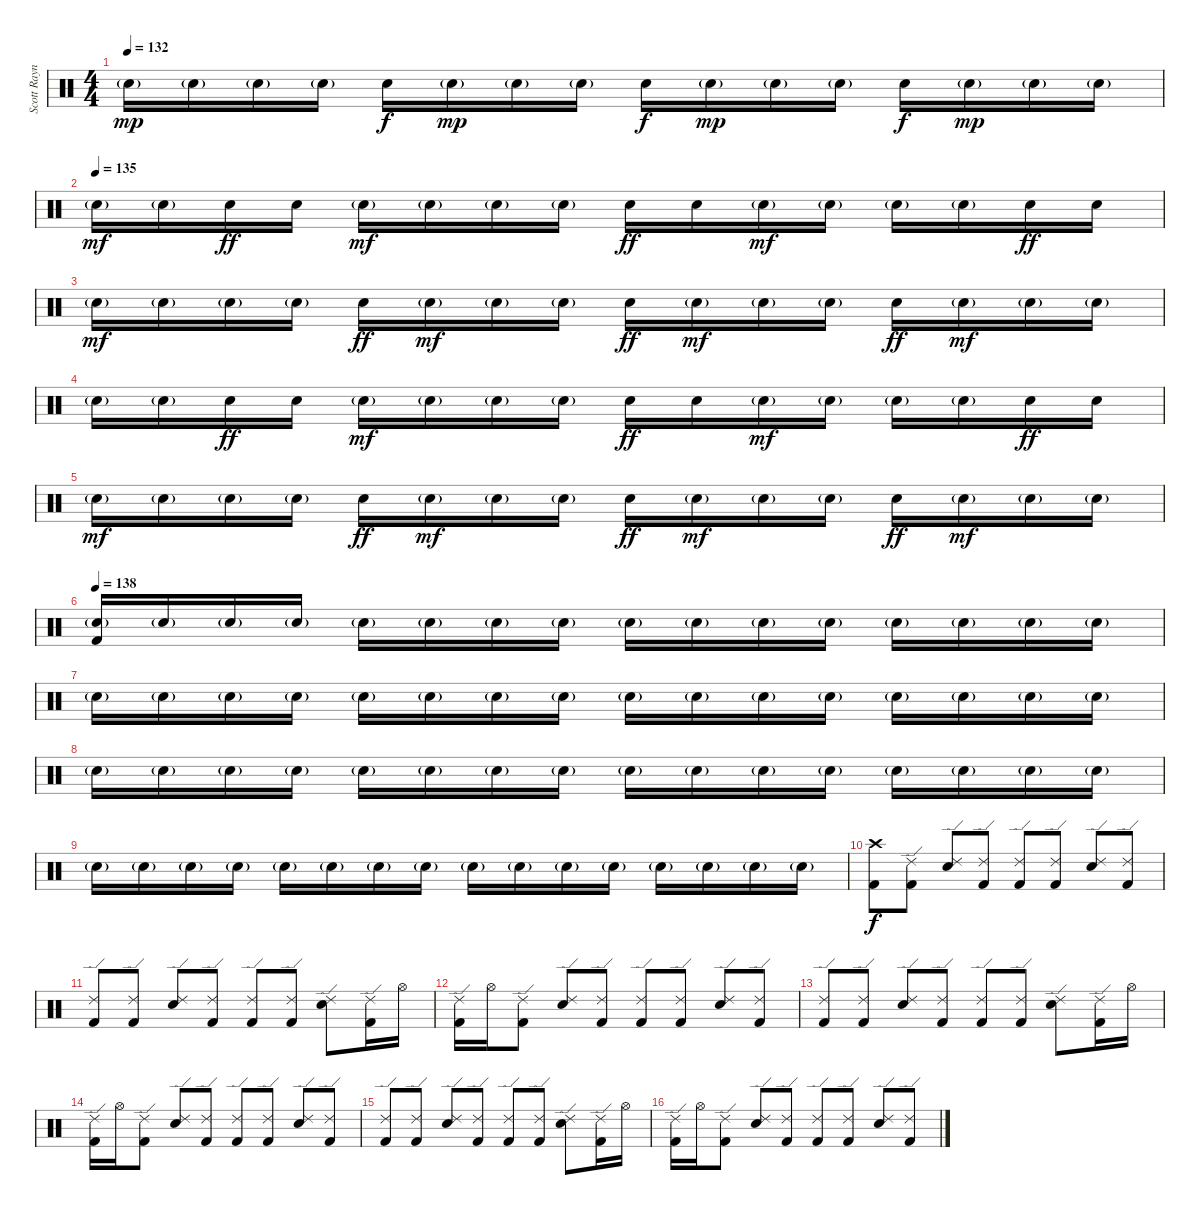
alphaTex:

\track ("Scott Raynor" "Scott Rayn") {instrument percussion}
\staff {score}
\articulation defaults
\ts (4 4)
\tempo 132
\clef neutral
\ks c "Snare (hit) 2"{g}.16{dy mp} "Snare (hit) 2"{g}.16 "Snare (hit) 2"{g}.16 "Snare (hit) 2"{g}.16 "Snare (hit) 2".16{dy f} "Snare (hit) 2"{g}.16{dy mp} "Snare (hit) 2"{g}.16 "Snare (hit) 2"{g}.16 "Snare (hit) 2".16{dy f} "Snare (hit) 2"{g}.16{dy mp} "Snare (hit) 2"{g}.16 "Snare (hit) 2"{g}.16 "Snare (hit) 2".16{dy f} "Snare (hit) 2"{g}.16{dy mp} "Snare (hit) 2"{g}.16 "Snare (hit) 2"{g}.16
|
\tempo (135)
"Snare (hit) 2"{g}.16{dy mf} "Snare (hit) 2"{g}.16 "Snare (hit) 2".16{dy ff} "Snare (hit) 2".16 "Snare (hit) 2"{g}.16{dy mf} "Snare (hit) 2"{g}.16 "Snare (hit) 2"{g}.16 "Snare (hit) 2"{g}.16 "Snare (hit) 2".16{dy ff} "Snare (hit) 2".16 "Snare (hit) 2"{g}.16{dy mf} "Snare (hit) 2"{g}.16 "Snare (hit) 2"{g}.16 "Snare (hit) 2"{g}.16 "Snare (hit) 2".16{dy ff} "Snare (hit) 2".16 |
"Snare (hit) 2"{g}.16{dy mf} "Snare (hit) 2"{g}.16 "Snare (hit) 2"{g}.16 "Snare (hit) 2"{g}.16 "Snare (hit) 2".16{dy ff} "Snare (hit) 2"{g}.16{dy mf} "Snare (hit) 2"{g}.16 "Snare (hit) 2"{g}.16 "Snare (hit) 2".16{dy ff} "Snare (hit) 2"{g}.16{dy mf} "Snare (hit) 2"{g}.16 "Snare (hit) 2"{g}.16 "Snare (hit) 2".16{dy ff} "Snare (hit) 2"{g}.16{dy mf} "Snare (hit) 2"{g}.16 "Snare (hit) 2"{g}.16 |
"Snare (hit) 2"{g}.16 "Snare (hit) 2"{g}.16 "Snare (hit) 2".16{dy ff} "Snare (hit) 2".16 "Snare (hit) 2"{g}.16{dy mf} "Snare (hit) 2"{g}.16 "Snare (hit) 2"{g}.16 "Snare (hit) 2"{g}.16 "Snare (hit) 2".16{dy ff} "Snare (hit) 2".16 "Snare (hit) 2"{g}.16{dy mf} "Snare (hit) 2"{g}.16 "Snare (hit) 2"{g}.16 "Snare (hit) 2"{g}.16 "Snare (hit) 2".16{dy ff} "Snare (hit) 2".16 |
"Snare (hit) 2"{g}.16{dy mf} "Snare (hit) 2"{g}.16 "Snare (hit) 2"{g}.16 "Snare (hit) 2"{g}.16 "Snare (hit) 2".16{dy ff} "Snare (hit) 2"{g}.16{dy mf} "Snare (hit) 2"{g}.16 "Snare (hit) 2"{g}.16 "Snare (hit) 2".16{dy ff} "Snare (hit) 2"{g}.16{dy mf} "Snare (hit) 2"{g}.16 "Snare (hit) 2"{g}.16 "Snare (hit) 2".16{dy ff} "Snare (hit) 2"{g}.16{dy mf} "Snare (hit) 2"{g}.16 "Snare (hit) 2"{g}.16 |
\tempo 138
("Snare (hit) 2"{g} "Kick (hit) 2").16{volume 16} "Snare (hit) 2"{g}.16 "Snare (hit) 2"{g}.16 "Snare (hit) 2"{g}.16 "Snare (hit) 2"{g}.16 "Snare (hit) 2"{g}.16 "Snare (hit) 2"{g}.16 "Snare (hit) 2"{g}.16 "Snare (hit) 2"{g}.16 "Snare (hit) 2"{g}.16 "Snare (hit) 2"{g}.16 "Snare (hit) 2"{g}.16 "Snare (hit) 2"{g}.16 "Snare (hit) 2"{g}.16 "Snare (hit) 2"{g}.16 "Snare (hit) 2"{g}.16 |
"Snare (hit) 2"{g}.16 "Snare (hit) 2"{g}.16 "Snare (hit) 2"{g}.16 "Snare (hit) 2"{g}.16 "Snare (hit) 2"{g}.16 "Snare (hit) 2"{g}.16 "Snare (hit) 2"{g}.16 "Snare (hit) 2"{g}.16 "Snare (hit) 2"{g}.16 "Snare (hit) 2"{g}.16 "Snare (hit) 2"{g}.16 "Snare (hit) 2"{g}.16 "Snare (hit) 2"{g}.16 "Snare (hit) 2"{g}.16 "Snare (hit) 2"{g}.16 "Snare (hit) 2"{g}.16 |
"Snare (hit) 2"{g}.16 "Snare (hit) 2"{g}.16 "Snare (hit) 2"{g}.16 "Snare (hit) 2"{g}.16 "Snare (hit) 2"{g}.16 "Snare (hit) 2"{g}.16 "Snare (hit) 2"{g}.16 "Snare (hit) 2"{g}.16 "Snare (hit) 2"{g}.16 "Snare (hit) 2"{g}.16 "Snare (hit) 2"{g}.16 "Snare (hit) 2"{g}.16 "Snare (hit) 2"{g}.16 "Snare (hit) 2"{g}.16 "Snare (hit) 2"{g}.16 "Snare (hit) 2"{g}.16 |
"Snare (hit) 2"{g}.16 "Snare (hit) 2"{g}.16 "Snare (hit) 2"{g}.16 "Snare (hit) 2"{g}.16 "Snare (hit) 2"{g}.16 "Snare (hit) 2"{g}.16 "Snare (hit) 2"{g}.16 "Snare (hit) 2"{g}.16 "Snare (hit) 2"{g}.16 "Snare (hit) 2"{g}.16 "Snare (hit) 2"{g}.16 "Snare (hit) 2"{g}.16 "Snare (hit) 2"{g}.16 "Snare (hit) 2"{g}.16 "Snare (hit) 2"{g}.16 "Snare (hit) 2"{g}.16 |
("Crash high (hit)" "Kick (hit) 2").8{dy f volume 13} ("Ride (edge) 2" "Kick (hit) 2").8 ("Ride (edge) 2" "Snare (hit) 2").8 ("Ride (edge) 2" "Kick (hit) 2").8 ("Ride (edge) 2" "Kick (hit) 2").8 ("Ride (edge) 2" "Kick (hit) 2").8 ("Ride (edge) 2" "Snare (hit) 2").8 ("Ride (edge) 2" "Kick (hit) 2").8 |
("Ride (edge) 2" "Kick (hit) 2").8 ("Ride (edge) 2" "Kick (hit) 2").8 ("Ride (edge) 2" "Snare (hit) 2").8 ("Ride (edge) 2" "Kick (hit) 2").8 ("Ride (edge) 2" "Kick (hit) 2").8 ("Ride (edge) 2" "Kick (hit) 2").8 ("Ride (edge) 2" "Snare (hit) 2").8 ("Ride (edge) 2" "Kick (hit) 2").16 "Hi-Hat (open)".16 |
("Ride (edge) 2" "Kick (hit) 2").16 "Hi-Hat (open)".16 ("Ride (edge) 2" "Kick (hit) 2").8 ("Ride (edge) 2" "Snare (hit) 2").8 ("Ride (edge) 2" "Kick (hit) 2").8 ("Ride (edge) 2" "Kick (hit) 2").8 ("Ride (edge) 2" "Kick (hit) 2").8 ("Ride (edge) 2" "Snare (hit) 2").8 ("Ride (edge) 2" "Kick (hit) 2").8 |
("Ride (edge) 2" "Kick (hit) 2").8 ("Ride (edge) 2" "Kick (hit) 2").8 ("Ride (edge) 2" "Snare (hit) 2").8 ("Ride (edge) 2" "Kick (hit) 2").8 ("Ride (edge) 2" "Kick (hit) 2").8 ("Ride (edge) 2" "Kick (hit) 2").8 ("Ride (edge) 2" "Snare (hit) 2").8 ("Ride (edge) 2" "Kick (hit) 2").16 "Hi-Hat (open)".16 |
("Ride (edge) 2" "Kick (hit) 2").16 "Hi-Hat (open)".16 ("Ride (edge) 2" "Kick (hit) 2").8 ("Ride (edge) 2" "Snare (hit) 2").8 ("Ride (edge) 2" "Kick (hit) 2").8 ("Ride (edge) 2" "Kick (hit) 2").8 ("Ride (edge) 2" "Kick (hit) 2").8 ("Ride (edge) 2" "Snare (hit) 2").8 ("Ride (edge) 2" "Kick (hit) 2").8 |
("Ride (edge) 2" "Kick (hit) 2").8 ("Ride (edge) 2" "Kick (hit) 2").8 ("Ride (edge) 2" "Snare (hit) 2").8 ("Ride (edge) 2" "Kick (hit) 2").8 ("Ride (edge) 2" "Kick (hit) 2").8 ("Ride (edge) 2" "Kick (hit) 2").8 ("Ride (edge) 2" "Snare (hit) 2").8 ("Ride (edge) 2" "Kick (hit) 2").16 "Hi-Hat (open)".16 |
("Ride (edge) 2" "Kick (hit) 2").16 "Hi-Hat (open)".16 ("Ride (edge) 2" "Kick (hit) 2").8 ("Ride (edge) 2" "Snare (hit) 2").8 ("Ride (edge) 2" "Kick (hit) 2").8 ("Ride (edge) 2" "Kick (hit) 2").8 ("Ride (edge) 2" "Kick (hit) 2").8 ("Ride (edge) 2" "Snare (hit) 2").8 ("Ride (edge) 2" "Kick (hit) 2").8
